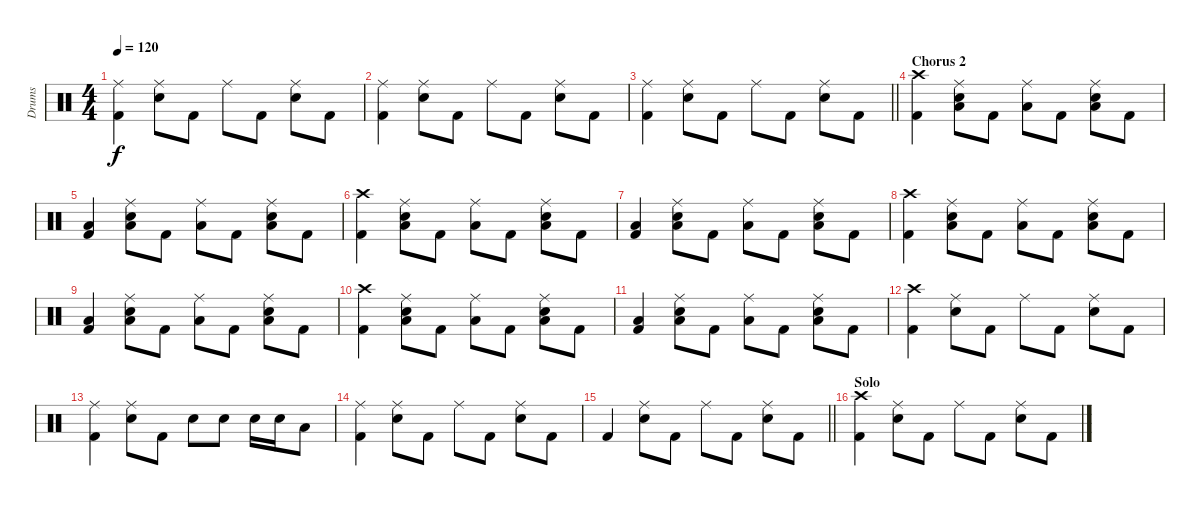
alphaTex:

\track ("Drums" "Drums") {instrument percussion}
\staff {score}
\articulation defaults
\ts (4 4)
\tempo 120
\clef neutral
\ks c
("Ride (middle)" "Kick (hit) 2").4{dy f} ("Ride (middle)" "Snare (hit) 2").8 "Kick (hit) 2".8 "Ride (middle)".8 "Kick (hit) 2".8 ("Ride (middle)" "Snare (hit) 2").8 "Kick (hit) 2".8 |
("Ride (middle)" "Kick (hit) 2").4 ("Ride (middle)" "Snare (hit) 2").8 "Kick (hit) 2".8 "Ride (middle)".8 "Kick (hit) 2".8 ("Ride (middle)" "Snare (hit) 2").8 "Kick (hit) 2".8 |
\barLineRight lightlight
("Ride (middle)" "Kick (hit) 2").4 ("Ride (middle)" "Snare (hit) 2").8 "Kick (hit) 2".8 "Ride (middle)".8 "Kick (hit) 2".8 ("Ride (middle)" "Snare (hit) 2").8 "Kick (hit) 2".8 |
\section ("" "Chorus 2")
("Crash high (hit)" "Kick (hit) 2").4 ("Ride (middle)" "Low Floor Tom (hit)" "Snare (hit) 2").8 "Kick (hit) 2".8 ("Ride (middle)" "Low Floor Tom (hit)").8 "Kick (hit) 2".8 ("Ride (middle)" "Low Floor Tom (hit)" "Snare (hit) 2").8 "Kick (hit) 2".8 |
("Low Floor Tom (hit)" "Kick (hit) 2").4 ("Ride (middle)" "Low Floor Tom (hit)" "Snare (hit) 2").8 "Kick (hit) 2".8 ("Ride (middle)" "Low Floor Tom (hit)").8 "Kick (hit) 2".8 ("Ride (middle)" "Low Floor Tom (hit)" "Snare (hit) 2").8 "Kick (hit) 2".8 |
("Crash high (hit)" "Kick (hit) 2").4 ("Ride (middle)" "Low Floor Tom (hit)" "Snare (hit) 2").8 "Kick (hit) 2".8 ("Ride (middle)" "Low Floor Tom (hit)").8 "Kick (hit) 2".8 ("Ride (middle)" "Low Floor Tom (hit)" "Snare (hit) 2").8 "Kick (hit) 2".8 |
("Low Floor Tom (hit)" "Kick (hit) 2").4 ("Ride (middle)" "Low Floor Tom (hit)" "Snare (hit) 2").8 "Kick (hit) 2".8 ("Ride (middle)" "Low Floor Tom (hit)").8 "Kick (hit) 2".8 ("Ride (middle)" "Low Floor Tom (hit)" "Snare (hit) 2").8 "Kick (hit) 2".8 |
("Crash high (hit)" "Kick (hit) 2").4 ("Ride (middle)" "Low Floor Tom (hit)" "Snare (hit) 2").8 "Kick (hit) 2".8 ("Ride (middle)" "Low Floor Tom (hit)").8 "Kick (hit) 2".8 ("Ride (middle)" "Low Floor Tom (hit)" "Snare (hit) 2").8 "Kick (hit) 2".8 |
("Low Floor Tom (hit)" "Kick (hit) 2").4 ("Ride (middle)" "Low Floor Tom (hit)" "Snare (hit) 2").8 "Kick (hit) 2".8 ("Ride (middle)" "Low Floor Tom (hit)").8 "Kick (hit) 2".8 ("Ride (middle)" "Low Floor Tom (hit)" "Snare (hit) 2").8 "Kick (hit) 2".8 |
("Crash high (hit)" "Kick (hit) 2").4 ("Ride (middle)" "Low Floor Tom (hit)" "Snare (hit) 2").8 "Kick (hit) 2".8 ("Ride (middle)" "Low Floor Tom (hit)").8 "Kick (hit) 2".8 ("Ride (middle)" "Low Floor Tom (hit)" "Snare (hit) 2").8 "Kick (hit) 2".8 |
("Low Floor Tom (hit)" "Kick (hit) 2").4 ("Ride (middle)" "Low Floor Tom (hit)" "Snare (hit) 2").8 "Kick (hit) 2".8 ("Ride (middle)" "Low Floor Tom (hit)").8 "Kick (hit) 2".8 ("Ride (middle)" "Low Floor Tom (hit)" "Snare (hit) 2").8 "Kick (hit) 2".8 |
("Crash high (hit)" "Kick (hit) 2").4 ("Ride (middle)" "Snare (hit) 2").8 "Kick (hit) 2".8 "Ride (middle)".8 "Kick (hit) 2".8 ("Ride (middle)" "Snare (hit) 2").8 "Kick (hit) 2".8 |
("Ride (middle)" "Kick (hit) 2").4 ("Ride (middle)" "Snare (hit) 2").8 "Kick (hit) 2".8 "Snare (hit) 2".8 "Snare (hit) 2".8 "Snare (hit) 2".16 "Snare (hit) 2".16 "Low Tom (hit)".8 |
("Ride (middle)" "Kick (hit) 2").4 ("Ride (middle)" "Snare (hit) 2").8 "Kick (hit) 2".8 "Ride (middle)".8 "Kick (hit) 2".8 ("Ride (middle)" "Snare (hit) 2").8 "Kick (hit) 2".8 |
\barLineRight lightlight "Kick (hit) 2".4
("Ride (middle)" "Snare (hit) 2").8 "Kick (hit) 2".8 "Ride (middle)".8 "Kick (hit) 2".8 ("Ride (middle)" "Snare (hit) 2").8 "Kick (hit) 2".8 |
\section ("" "Solo")
("Crash high (hit)" "Kick (hit) 2").4 ("Ride (middle)" "Snare (hit) 2").8 "Kick (hit) 2".8 "Ride (middle)".8 "Kick (hit) 2".8 ("Ride (middle)" "Snare (hit) 2").8 "Kick (hit) 2".8
